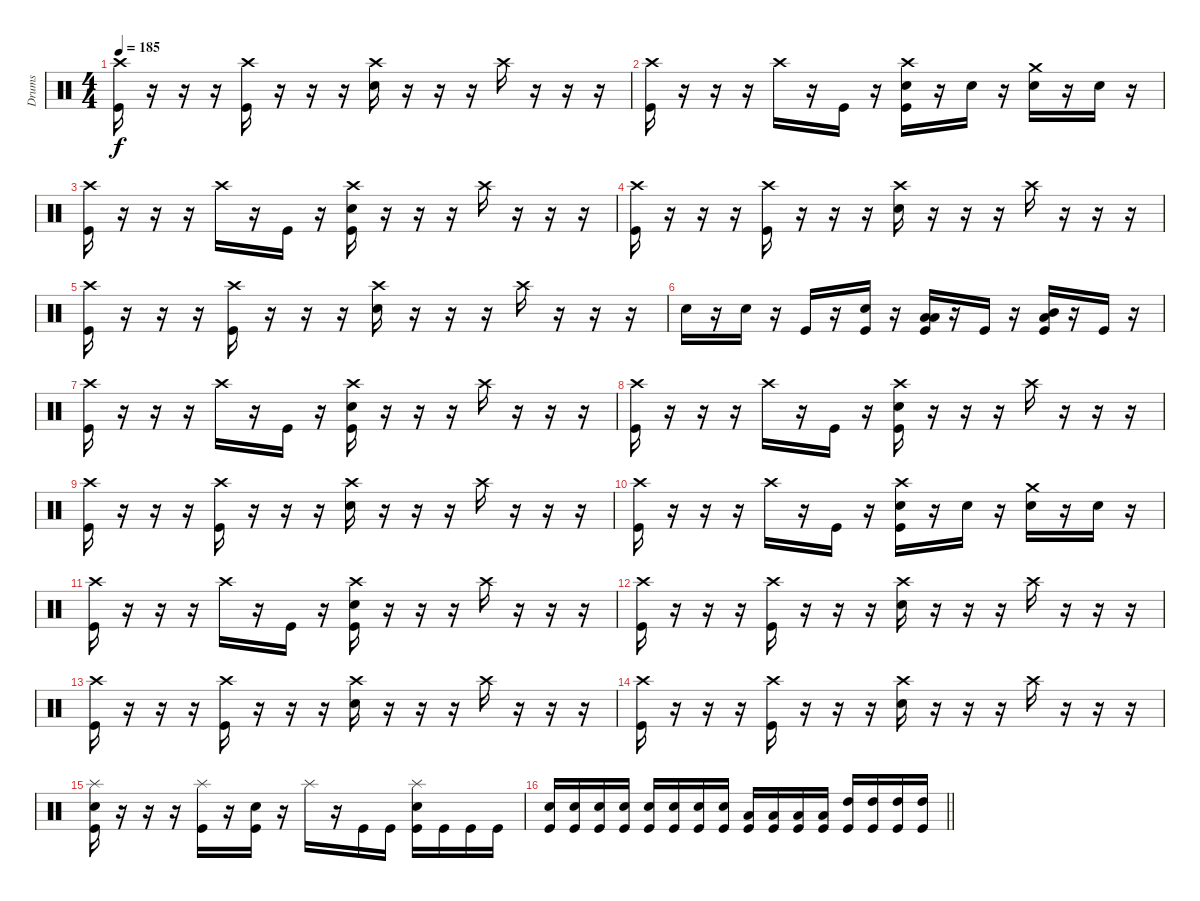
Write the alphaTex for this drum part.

\track ("Drums" "Drums") {instrument percussion}
\staff {score}
\articulation defaults
\ts (4 4)
\tempo 185
\clef neutral
\ks c
("Crash high (hit)" "Kick (hit)").16{dy f} r.16 r.16 r.16 ("Crash high (hit)" "Kick (hit)").16 r.16 r.16 r.16 ("Crash high (hit)" "Snare (hit) 2").16 r.16 r.16 r.16 "Crash high (hit)".16 r.16 r.16 r.16 |
("Crash high (hit)" "Kick (hit)").16 r.16 r.16 r.16 "Crash high (hit)".16 r.16 "Kick (hit)".16 r.16 ("Crash high (hit)" "Snare (hit) 2" "Kick (hit)").16 r.16 "Snare (hit) 2".16 r.16 ("Crash medium (hit)" "Snare (hit) 2").16 r.16 "Snare (hit) 2".16 r.16 |
("Crash high (hit)" "Kick (hit)").16 r.16 r.16 r.16 "Crash high (hit)".16 r.16 "Kick (hit)".16 r.16 ("Crash high (hit)" "Snare (hit) 2" "Kick (hit)").16 r.16 r.16 r.16 "Crash high (hit)".16 r.16 r.16 r.16 |
("Crash high (hit)" "Kick (hit)").16 r.16 r.16 r.16 ("Crash high (hit)" "Kick (hit)").16 r.16 r.16 r.16 ("Crash high (hit)" "Snare (hit) 2").16 r.16 r.16 r.16 "Crash high (hit)".16 r.16 r.16 r.16 |
("Crash high (hit)" "Kick (hit)").16 r.16 r.16 r.16 ("Crash high (hit)" "Kick (hit)").16 r.16 r.16 r.16 ("Crash high (hit)" "Snare (hit) 2").16 r.16 r.16 r.16 "Crash high (hit)".16 r.16 r.16 r.16 |
"Snare (hit) 2".16 r.16 "Snare (hit) 2".16 r.16 "Kick (hit)".16 r.16 ("Snare (hit) 2" "Kick (hit)").16 r.16 ("Low Tom (hit)" "Low Floor Tom (hit)" "Kick (hit)").16 r.16 "Kick (hit)".16 r.16 ("Mid Tom (hit)" "Low Tom (hit)" "Kick (hit)").16 r.16 "Kick (hit)".16 r.16 |
("Crash high (hit)" "Kick (hit)").16 r.16 r.16 r.16 "Crash high (hit)".16 r.16 "Kick (hit)".16 r.16 ("Crash high (hit)" "Snare (hit) 2" "Kick (hit)").16 r.16 r.16 r.16 "Crash high (hit)".16 r.16 r.16 r.16 |
("Crash high (hit)" "Kick (hit)").16 r.16 r.16 r.16 "Crash high (hit)".16 r.16 "Kick (hit)".16 r.16 ("Crash high (hit)" "Snare (hit) 2" "Kick (hit)").16 r.16 r.16 r.16 "Crash high (hit)".16 r.16 r.16 r.16 |
("Crash high (hit)" "Kick (hit)").16 r.16 r.16 r.16 ("Crash high (hit)" "Kick (hit)").16 r.16 r.16 r.16 ("Crash high (hit)" "Snare (hit) 2").16 r.16 r.16 r.16 "Crash high (hit)".16 r.16 r.16 r.16 |
("Crash high (hit)" "Kick (hit)").16 r.16 r.16 r.16 "Crash high (hit)".16 r.16 "Kick (hit)".16 r.16 ("Crash high (hit)" "Snare (hit) 2" "Kick (hit)").16 r.16 "Snare (hit) 2".16 r.16 ("Crash medium (hit)" "Snare (hit) 2").16 r.16 "Snare (hit) 2".16 r.16 |
("Crash high (hit)" "Kick (hit)").16 r.16 r.16 r.16 "Crash high (hit)".16 r.16 "Kick (hit)".16 r.16 ("Crash high (hit)" "Snare (hit) 2" "Kick (hit)").16 r.16 r.16 r.16 "Crash high (hit)".16 r.16 r.16 r.16 |
("Crash high (hit)" "Kick (hit)").16 r.16 r.16 r.16 ("Crash high (hit)" "Kick (hit)").16 r.16 r.16 r.16 ("Crash high (hit)" "Snare (hit) 2").16 r.16 r.16 r.16 "Crash high (hit)".16 r.16 r.16 r.16 |
("Crash high (hit)" "Kick (hit)").16 r.16 r.16 r.16 ("Crash high (hit)" "Kick (hit)").16 r.16 r.16 r.16 ("Crash high (hit)" "Snare (hit) 2").16 r.16 r.16 r.16 "Crash high (hit)".16 r.16 r.16 r.16 |
("Crash high (hit)" "Kick (hit)").16 r.16 r.16 r.16 ("Crash high (hit)" "Kick (hit)").16 r.16 r.16 r.16 ("Crash high (hit)" "Snare (hit) 2").16 r.16 r.16 r.16 "Crash high (hit)".16 r.16 r.16 r.16 |
("Splash (hit)" "Snare (hit) 2" "Kick (hit)").16 r.16 r.16 r.16 ("Splash (hit)" "Kick (hit)").16 r.16 ("Snare (hit) 2" "Kick (hit)").16 r.16 "Splash (hit)".16 r.16 "Kick (hit)".16 "Kick (hit)".16 ("Splash (hit)" "Snare (hit) 2" "Kick (hit)").16 "Kick (hit)".16 "Kick (hit)".16 "Kick (hit)".16 |
\barLineRight lightlight
("Snare (hit) 2" "Kick (hit)").16 ("Snare (hit) 2" "Kick (hit)").16 ("Snare (hit) 2" "Kick (hit)").16 ("Snare (hit) 2" "Kick (hit)").16 ("Snare (hit) 2" "Kick (hit)").16 ("Snare (hit) 2" "Kick (hit)").16 ("Snare (hit) 2" "Kick (hit)").16 ("Snare (hit) 2" "Kick (hit)").16 ("Low Tom (hit)" "Kick (hit)").16 ("Low Tom (hit)" "Kick (hit)").16 ("Low Tom (hit)" "Kick (hit)").16 ("Low Tom (hit)" "Kick (hit)").16 ("High Tom (hit)" "Kick (hit)").16 ("High Tom (hit)" "Kick (hit)").16 ("High Tom (hit)" "Kick (hit)").16 ("High Tom (hit)" "Kick (hit)").16
